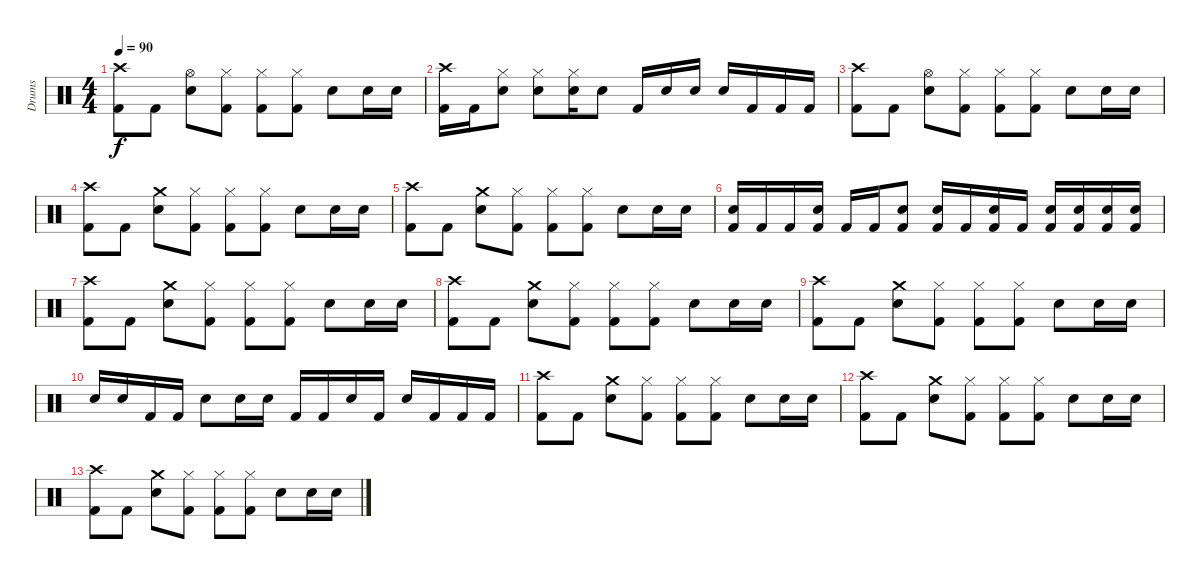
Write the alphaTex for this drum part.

\track ("Drums" "Drums") {instrument percussion}
\staff {score}
\articulation defaults
\ts (4 4)
\tempo 90
\clef neutral
\ks c
("Crash high (hit)" "Kick (hit) 2").8{dy f} "Kick (hit) 2".8 ("Hi-Hat (open)" "Snare (hit) 2").8 ("Kick (hit) 2" "Hi-Hat (closed)").8 ("Kick (hit) 2" "Hi-Hat (closed)").8 ("Kick (hit) 2" "Hi-Hat (closed)").8 "Snare (hit) 2".8 "Snare (hit) 2".16 "Snare (hit) 2".16 |
("Crash high (hit)" "Kick (hit) 2").16 "Kick (hit) 2".16 ("Snare (hit) 2" "Hi-Hat (closed)").8 ("Snare (hit) 2" "Hi-Hat (closed)").8 ("Snare (hit) 2" "Hi-Hat (closed)").16 "Snare (hit) 2".8 "Kick (hit) 2".16 "Snare (hit) 2".16 "Snare (hit) 2".16 "Snare (hit) 2".16 "Kick (hit) 2".16 "Kick (hit) 2".16 "Kick (hit) 2".16 |
("Crash high (hit)" "Kick (hit) 2").8 "Kick (hit) 2".8 ("Hi-Hat (open)" "Snare (hit) 2").8 ("Kick (hit) 2" "Hi-Hat (closed)").8 ("Kick (hit) 2" "Hi-Hat (closed)").8 ("Kick (hit) 2" "Hi-Hat (closed)").8 "Snare (hit) 2".8 "Snare (hit) 2".16 "Snare (hit) 2".16 |
("Crash high (hit)" "Kick (hit) 2").8 "Kick (hit) 2".8 ("Crash medium (hit)" "Snare (hit) 2").8 ("Kick (hit) 2" "Hi-Hat (closed)").8 ("Kick (hit) 2" "Hi-Hat (closed)").8 ("Kick (hit) 2" "Hi-Hat (closed)").8 "Snare (hit) 2".8 "Snare (hit) 2".16 "Snare (hit) 2".16 |
("Crash high (hit)" "Kick (hit) 2").8 "Kick (hit) 2".8 ("Crash medium (hit)" "Snare (hit) 2").8 ("Kick (hit) 2" "Hi-Hat (closed)").8 ("Kick (hit) 2" "Hi-Hat (closed)").8 ("Kick (hit) 2" "Hi-Hat (closed)").8 "Snare (hit) 2".8 "Snare (hit) 2".16 "Snare (hit) 2".16 |
("Snare (hit) 2" "Kick (hit) 2").16 "Kick (hit) 2".16 "Kick (hit) 2".16 ("Snare (hit) 2" "Kick (hit) 2").16 "Kick (hit) 2".16 "Kick (hit) 2".16 ("Snare (hit) 2" "Kick (hit) 2").8 ("Snare (hit) 2" "Kick (hit) 2").16 "Kick (hit) 2".16 ("Snare (hit) 2" "Kick (hit) 2").16 "Kick (hit) 2".16 ("Snare (hit) 2" "Kick (hit) 2").16 ("Snare (hit) 2" "Kick (hit) 2").16 ("Snare (hit) 2" "Kick (hit) 2").16 ("Snare (hit) 2" "Kick (hit) 2").16 |
("Crash high (hit)" "Kick (hit) 2").8 "Kick (hit) 2".8 ("Crash medium (hit)" "Snare (hit) 2").8 ("Kick (hit) 2" "Hi-Hat (closed)").8 ("Kick (hit) 2" "Hi-Hat (closed)").8 ("Kick (hit) 2" "Hi-Hat (closed)").8 "Snare (hit) 2".8 "Snare (hit) 2".16 "Snare (hit) 2".16 |
("Crash high (hit)" "Kick (hit) 2").8{volume 12} "Kick (hit) 2".8 ("Crash medium (hit)" "Snare (hit) 2").8 ("Kick (hit) 2" "Hi-Hat (closed)").8 ("Kick (hit) 2" "Hi-Hat (closed)").8 ("Kick (hit) 2" "Hi-Hat (closed)").8 "Snare (hit) 2".8 "Snare (hit) 2".16 "Snare (hit) 2".16 |
("Crash high (hit)" "Kick (hit) 2").8{volume 10} "Kick (hit) 2".8 ("Crash medium (hit)" "Snare (hit) 2").8 ("Kick (hit) 2" "Hi-Hat (closed)").8 ("Kick (hit) 2" "Hi-Hat (closed)").8 ("Kick (hit) 2" "Hi-Hat (closed)").8 "Snare (hit) 2".8 "Snare (hit) 2".16 "Snare (hit) 2".16 |
"Snare (hit) 2".16{volume 8} "Snare (hit) 2".16 "Kick (hit) 2".16 "Kick (hit) 2".16 "Snare (hit) 2".8 "Snare (hit) 2".16 "Snare (hit) 2".16 "Kick (hit) 2".16 "Kick (hit) 2".16 "Snare (hit) 2".16 "Kick (hit) 2".16 "Snare (hit) 2".16 "Kick (hit) 2".16 "Kick (hit) 2".16 "Kick (hit) 2".16 |
("Crash high (hit)" "Kick (hit) 2").8{volume 6} "Kick (hit) 2".8 ("Crash medium (hit)" "Snare (hit) 2").8 ("Kick (hit) 2" "Hi-Hat (closed)").8 ("Kick (hit) 2" "Hi-Hat (closed)").8 ("Kick (hit) 2" "Hi-Hat (closed)").8 "Snare (hit) 2".8 "Snare (hit) 2".16 "Snare (hit) 2".16 |
("Crash high (hit)" "Kick (hit) 2").8{volume 4} "Kick (hit) 2".8 ("Crash medium (hit)" "Snare (hit) 2").8 ("Kick (hit) 2" "Hi-Hat (closed)").8 ("Kick (hit) 2" "Hi-Hat (closed)").8 ("Kick (hit) 2" "Hi-Hat (closed)").8 "Snare (hit) 2".8 "Snare (hit) 2".16 "Snare (hit) 2".16 |
("Crash high (hit)" "Kick (hit) 2").8{volume 2} "Kick (hit) 2".8 ("Crash medium (hit)" "Snare (hit) 2").8 ("Kick (hit) 2" "Hi-Hat (closed)").8 ("Kick (hit) 2" "Hi-Hat (closed)").8 ("Kick (hit) 2" "Hi-Hat (closed)").8 "Snare (hit) 2".8 "Snare (hit) 2".16 "Snare (hit) 2".16
